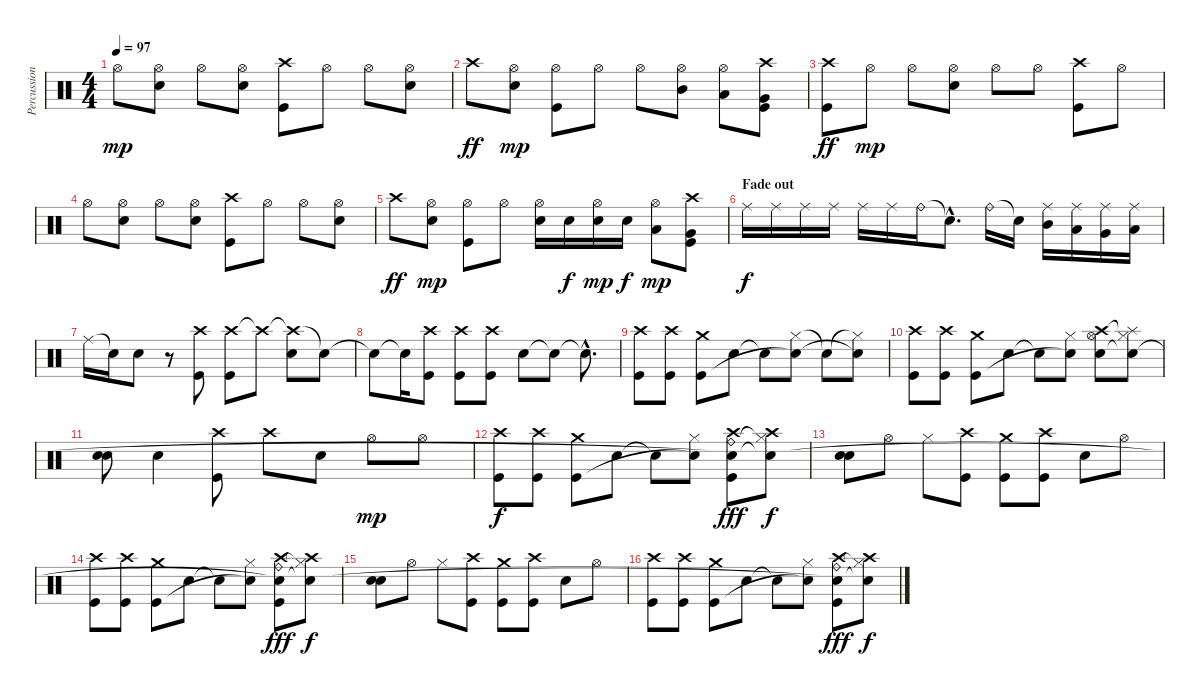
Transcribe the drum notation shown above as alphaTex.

\track ("Percussions (Etn)" "Percussion") {instrument percussion}
\staff {score}
\articulation defaults
\ts (4 4)
\tempo 97
\clef neutral
\ks c "Hi-Hat (open)".8{dy mp}
("Hi-Hat (open)" "Electric Snare (hit)").8 "Hi-Hat (open)".8 ("Hi-Hat (open)" "Electric Snare (hit)").8 ("Crash high (hit)" "Kick (hit)").8 "Hi-Hat (open)".8 "Hi-Hat (open)".8 ("Hi-Hat (open)" "Electric Snare (hit)").8 |
"Crash high (hit)".8{dy ff} ("Hi-Hat (open)" "Electric Snare (hit)").8{dy mp} ("Hi-Hat (open)" "Kick (hit)").8 "Hi-Hat (open)".8 "Hi-Hat (open)".8 ("Hi-Hat (open)" "Mid Tom (hit)").8 ("Hi-Hat (open)" "Low Tom (hit)").8 ("Crash high (hit)" "Very Low Tom (hit)" "Kick (hit)").8 |
("Crash high (hit)" "Kick (hit)").8{dy ff} "Hi-Hat (open)".8{dy mp} "Hi-Hat (open)".8 ("Hi-Hat (open)" "Electric Snare (hit)").8 "Hi-Hat (open)".8 "Hi-Hat (open)".8 ("Crash high (hit)" "Kick (hit)").8 "Hi-Hat (open)".8 |
"Hi-Hat (open)".8 ("Hi-Hat (open)" "Electric Snare (hit)").8 "Hi-Hat (open)".8 ("Hi-Hat (open)" "Electric Snare (hit)").8 ("Crash high (hit)" "Kick (hit)").8 "Hi-Hat (open)".8 "Hi-Hat (open)".8 ("Hi-Hat (open)" "Electric Snare (hit)").8 |
\section ("" "")
"Crash high (hit)".8{dy ff} ("Hi-Hat (open)" "Electric Snare (hit)").8{dy mp} ("Hi-Hat (open)" "Kick (hit)").8 "Hi-Hat (open)".8 ("Hi-Hat (open)" "Electric Snare (hit)").16 "Electric Snare (hit)".16{dy f} ("Hi-Hat (open)" "Electric Snare (hit)").16{dy mp} "Electric Snare (hit)".16{dy f} ("Hi-Hat (open)" "Low Tom (hit)").8{dy mp} ("Crash high (hit)" "Very Low Tom (hit)" "Kick (hit)").8 |
\section ("" "Fade out")
"Ride (middle)".16{dy f} "Ride (middle)".16 "Ride (middle)".16 "Ride (middle)".16 "Ride (middle)".16 "Ride (middle)".16 "Ride (bell)".16 "Snare (hit)"{hac t}.8{d} "Ride (bell)".16 "Snare (hit)"{t}.16 ("Ride (middle)" "Mid Tom (hit)").16 ("Ride (middle)" "Low Tom (hit)").16 ("Ride (middle)" "Very Low Tom (hit)").16 ("Ride (middle)" "Low Floor Tom (hit)").16 |
"Ride (middle)".16 "Snare (hit)"{t}.16 "Electric Snare (hit)".8 r.8 ("Crash high (hit)" "Kick (hit)").8 ("Crash high (hit)" "Kick (hit)").8 "Crash high (hit)"{t}.8 ("Crash high (hit)"{t} "Electric Snare (hit)").8 "Snare (hit)"{t}.8 |
"Snare (hit)"{t}.8 "Snare (hit)"{t}.16 ("Crash high (hit)" "Kick (hit)").8 ("Crash high (hit)" "Kick (hit)").8 ("Crash high (hit)" "Kick (hit)").8 "Electric Snare (hit)".8 "Snare (hit)"{t}.8 "Snare (hit)"{hac t}.8{d} |
("Crash high (hit)" "Kick (hit)").8 ("Crash high (hit)" "Kick (hit)").8 ("Crash medium (hit)" "Kick (hit)").8 "Electric Snare (hit)".8 "Snare (hit)"{t}.8 ("Hi-Hat (closed)" "Snare (hit)"{t}).8 "Snare (hit)"{t}.8 ("Hi-Hat (closed)"{t} "Snare (hit)"{t}).8 |
("Crash high (hit)" "Kick (hit)").8 ("Crash high (hit)" "Kick (hit)").8 ("Crash medium (hit)" "Kick (hit)").8 "Electric Snare (hit)".8 "Snare (hit)"{t}.8 ("Hi-Hat (closed)" "Snare (hit)"{t}).8 ("Crash high (hit)" "Hi-Hat (open)" "Snare (hit)").8 ("Hi-Hat (closed)"{t} "Splash (hit)" "Snare (hit)"{t}).8 |
("Electric Snare (hit)" "Electric Snare (hit)").8{bd 240} "Electric Snare (hit)".4 ("Crash high (hit)" "Kick (hit)").8 "Crash high (hit)".8 "Electric Snare (hit)".8 "Hi-Hat (open)".8{dy mp} "Hi-Hat (open)".8 |
("Crash high (hit)" "Kick (hit)").8{dy f} ("Crash high (hit)" "Kick (hit)").8 ("Crash medium (hit)" "Kick (hit)").8 "Electric Snare (hit)".8 "Snare (hit)"{t}.8 ("Hi-Hat (closed)" "Snare (hit)"{t}).8 ("Ride (bell)" "Crash high (hit)" "Snare (hit)"{t} "Kick (hit)").8{dy fff} ("Hi-Hat (closed)"{t} "Crash high (hit)" "Snare (hit)"{t}).8{dy f} |
("Electric Snare (hit)" "Electric Snare (hit)").8{bd 240} "Hi-Hat (open)".8 "Hi-Hat (closed)".8 ("Crash high (hit)" "Kick (hit)").8 ("Crash medium (hit)" "Kick (hit)").8 ("Crash high (hit)" "Kick (hit)").8 "Electric Snare (hit)".8 "Hi-Hat (open)".8 |
("Crash high (hit)" "Kick (hit)").8 ("Crash high (hit)" "Kick (hit)").8 ("Crash medium (hit)" "Kick (hit)").8 "Electric Snare (hit)".8 "Snare (hit)"{t}.8 ("Hi-Hat (closed)" "Snare (hit)"{t}).8 ("Ride (bell)" "Crash high (hit)" "Snare (hit)"{t} "Kick (hit)").8{dy fff} ("Hi-Hat (closed)"{t} "Crash high (hit)" "Snare (hit)"{t}).8{dy f} |
("Electric Snare (hit)" "Electric Snare (hit)").8{bd 240} "Hi-Hat (open)".8 "Hi-Hat (closed)".8 ("Crash high (hit)" "Kick (hit)").8 ("Crash medium (hit)" "Kick (hit)").8 ("Crash high (hit)" "Kick (hit)").8 "Electric Snare (hit)".8 "Hi-Hat (open)".8 |
("Crash high (hit)" "Kick (hit)").8 ("Crash high (hit)" "Kick (hit)").8 ("Crash medium (hit)" "Kick (hit)").8 "Electric Snare (hit)".8 "Snare (hit)"{t}.8 ("Hi-Hat (closed)" "Snare (hit)"{t}).8 ("Ride (bell)" "Crash high (hit)" "Snare (hit)"{t} "Kick (hit)").8{dy fff} ("Hi-Hat (closed)"{t} "Crash high (hit)" "Snare (hit)"{t}).8{dy f}
